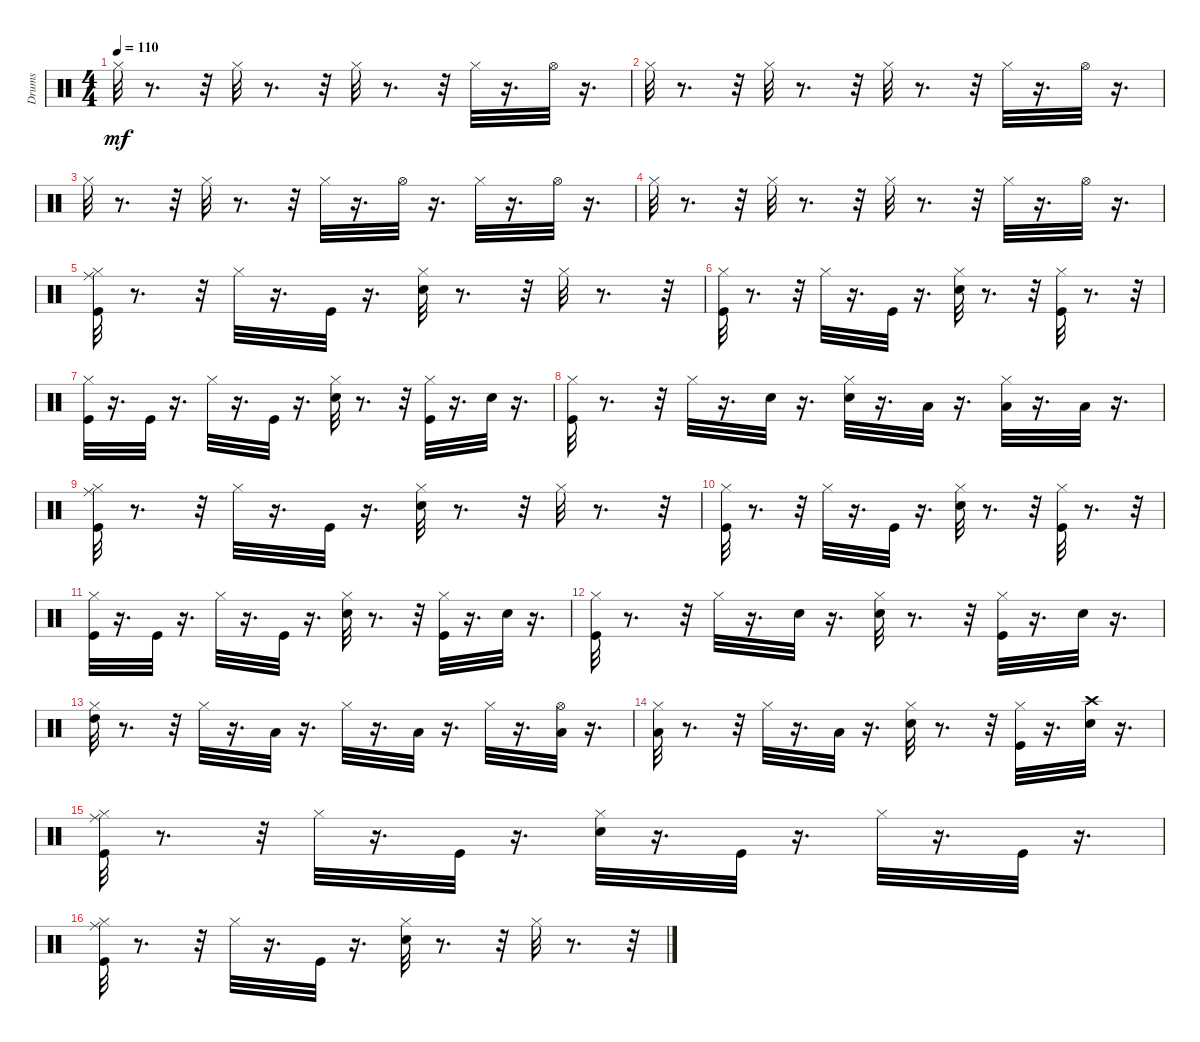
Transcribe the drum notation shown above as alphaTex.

\track ("Drums" "Drums") {instrument percussion}
\staff {score}
\articulation defaults
\ts (4 4)
\tempo 110
\clef neutral
\ks c "Hi-Hat (closed)".32{dy mf}
r.8{d} r.32 "Hi-Hat (closed)".32 r.8{d} r.32 "Hi-Hat (closed)".32 r.8{d} r.32 "Hi-Hat (closed)".32 r.16{d} "Hi-Hat (open)".32 r.16{d} |
"Hi-Hat (closed)".32 r.8{d} r.32 "Hi-Hat (closed)".32 r.8{d} r.32 "Hi-Hat (closed)".32 r.8{d} r.32 "Hi-Hat (closed)".32 r.16{d} "Hi-Hat (open)".32 r.16{d} |
"Hi-Hat (closed)".32 r.8{d} r.32 "Hi-Hat (closed)".32 r.8{d} r.32 "Hi-Hat (closed)".32 r.16{d} "Hi-Hat (open)".32 r.16{d} "Hi-Hat (closed)".32 r.16{d} "Hi-Hat (open)".32 r.16{d} |
"Hi-Hat (closed)".32 r.8{d} r.32 "Hi-Hat (closed)".32 r.8{d} r.32 "Hi-Hat (closed)".32 r.8{d} r.32 "Hi-Hat (closed)".32 r.16{d} "Hi-Hat (open)".32 r.16{d} |
("Kick (hit)" "Hi-Hat (closed)" "Ride (middle)").32 r.8{d} r.32 "Hi-Hat (closed)".32 r.16{d} "Kick (hit)".32 r.16{d} ("Snare (hit) 2" "Hi-Hat (closed)").32 r.8{d} r.32 "Hi-Hat (closed)".32 r.8{d} r.32 |
("Kick (hit)" "Hi-Hat (closed)").32 r.8{d} r.32 "Hi-Hat (closed)".32 r.16{d} "Kick (hit)".32 r.16{d} ("Snare (hit) 2" "Hi-Hat (closed)").32 r.8{d} r.32 ("Kick (hit)" "Hi-Hat (closed)").32 r.8{d} r.32 |
("Kick (hit)" "Hi-Hat (closed)").32 r.16{d} "Kick (hit)".32 r.16{d} "Hi-Hat (closed)".32 r.16{d} "Kick (hit)".32 r.16{d} ("Snare (hit) 2" "Hi-Hat (closed)").32 r.8{d} r.32 ("Kick (hit)" "Hi-Hat (closed)").32 r.16{d} "Snare (hit) 2".32 r.16{d} |
("Kick (hit)" "Hi-Hat (closed)").32 r.8{d} r.32 "Hi-Hat (closed)".32 r.16{d} "Snare (hit) 2".32 r.16{d} ("Snare (hit) 2" "Hi-Hat (closed)").32 r.16{d} "Low Floor Tom (hit)".32 r.16{d} ("Low Tom (hit)" "Hi-Hat (closed)").32 r.16{d} "Low Floor Tom (hit)".32 r.16{d} |
("Kick (hit)" "Hi-Hat (closed)" "Ride (middle)").32 r.8{d} r.32 "Hi-Hat (closed)".32 r.16{d} "Kick (hit)".32 r.16{d} ("Snare (hit) 2" "Hi-Hat (closed)").32 r.8{d} r.32 "Hi-Hat (closed)".32 r.8{d} r.32 |
("Kick (hit)" "Hi-Hat (closed)").32 r.8{d} r.32 "Hi-Hat (closed)".32 r.16{d} "Kick (hit)".32 r.16{d} ("Snare (hit) 2" "Hi-Hat (closed)").32 r.8{d} r.32 ("Kick (hit)" "Hi-Hat (closed)").32 r.8{d} r.32 |
("Kick (hit)" "Hi-Hat (closed)").32 r.16{d} "Kick (hit)".32 r.16{d} "Hi-Hat (closed)".32 r.16{d} "Kick (hit)".32 r.16{d} ("Snare (hit) 2" "Hi-Hat (closed)").32 r.8{d} r.32 ("Kick (hit)" "Hi-Hat (closed)").32 r.16{d} "Snare (hit) 2".32 r.16{d} |
("Kick (hit)" "Hi-Hat (closed)").32 r.8{d} r.32 "Hi-Hat (closed)".32 r.16{d} "Snare (hit) 2".32 r.16{d} ("Snare (hit) 2" "Hi-Hat (closed)").32 r.8{d} r.32 ("Kick (hit)" "Hi-Hat (closed)").32 r.16{d} "Snare (hit) 2".32 r.16{d} |
("High Tom (hit)" "Hi-Hat (closed)").32 r.8{d} r.32 "Hi-Hat (closed)".32 r.16{d} "Low Tom (hit)".32 r.16{d} "Hi-Hat (closed)".32 r.16{d} "Low Floor Tom (hit)".32 r.16{d} "Hi-Hat (closed)".32 r.16{d} ("Low Floor Tom (hit)" "Hi-Hat (open)").32 r.16{d} |
("Low Floor Tom (hit)" "Hi-Hat (closed)").32 r.8{d} r.32 "Hi-Hat (closed)".32 r.16{d} "Low Floor Tom (hit)".32 r.16{d} ("Snare (hit) 2" "Hi-Hat (closed)").32 r.8{d} r.32 ("Kick (hit)" "Hi-Hat (closed)").32 r.16{d} ("Snare (hit) 2" "Crash high (hit)").32 r.16{d} |
("Kick (hit)" "Hi-Hat (closed)" "Ride (middle)").32 r.8{d} r.32 "Hi-Hat (closed)".32 r.16{d} "Kick (hit)".32 r.16{d} ("Snare (hit) 2" "Hi-Hat (closed)").32 r.16{d} "Kick (hit)".32 r.16{d} "Hi-Hat (closed)".32 r.16{d} "Kick (hit)".32 r.16{d} |
("Kick (hit)" "Hi-Hat (closed)" "Ride (middle)").32 r.8{d} r.32 "Hi-Hat (closed)".32 r.16{d} "Kick (hit)".32 r.16{d} ("Snare (hit) 2" "Hi-Hat (closed)").32 r.8{d} r.32 "Hi-Hat (closed)".32 r.8{d} r.32
